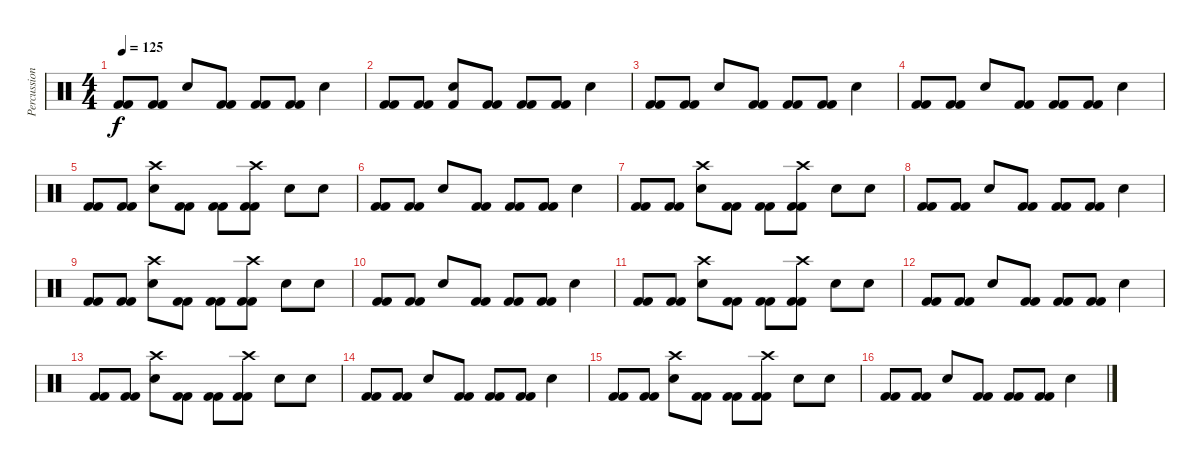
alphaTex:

\track ("Percussioni" "Percussion") {instrument percussion}
\staff {score}
\articulation defaults
\ts (4 4)
\tempo 125
\clef neutral
\ks c
("Kick (hit) 2" "Kick (hit) 2").8{dy f} ("Kick (hit) 2" "Kick (hit) 2").8 "Electric Snare (hit)".8 ("Kick (hit) 2" "Kick (hit) 2").8 ("Kick (hit) 2" "Kick (hit) 2").8 ("Kick (hit) 2" "Kick (hit) 2").8 "Electric Snare (hit)".4 |
("Kick (hit) 2" "Kick (hit) 2").8 ("Kick (hit) 2" "Kick (hit) 2").8 ("Electric Snare (hit)" "Kick (hit) 2").8 ("Kick (hit) 2" "Kick (hit) 2").8 ("Kick (hit) 2" "Kick (hit) 2").8 ("Kick (hit) 2" "Kick (hit) 2").8 "Electric Snare (hit)".4 |
("Kick (hit) 2" "Kick (hit) 2").8 ("Kick (hit) 2" "Kick (hit) 2").8 "Electric Snare (hit)".8 ("Kick (hit) 2" "Kick (hit) 2").8 ("Kick (hit) 2" "Kick (hit) 2").8 ("Kick (hit) 2" "Kick (hit) 2").8 "Electric Snare (hit)".4 |
("Kick (hit) 2" "Kick (hit) 2").8 ("Kick (hit) 2" "Kick (hit) 2").8 "Electric Snare (hit)".8 ("Kick (hit) 2" "Kick (hit) 2").8 ("Kick (hit) 2" "Kick (hit) 2").8 ("Kick (hit) 2" "Kick (hit) 2").8 "Electric Snare (hit)".4 |
("Kick (hit) 2" "Kick (hit) 2").8 ("Kick (hit) 2" "Kick (hit) 2").8 ("Electric Snare (hit)" "Crash high (hit)").8 ("Kick (hit) 2" "Kick (hit) 2").8 ("Kick (hit) 2" "Kick (hit) 2").8 ("Kick (hit) 2" "Kick (hit) 2" "Crash high (hit)").8 "Electric Snare (hit)".8 "Electric Snare (hit)".8 |
("Kick (hit) 2" "Kick (hit) 2").8 ("Kick (hit) 2" "Kick (hit) 2").8 "Electric Snare (hit)".8 ("Kick (hit) 2" "Kick (hit) 2").8 ("Kick (hit) 2" "Kick (hit) 2").8 ("Kick (hit) 2" "Kick (hit) 2").8 "Electric Snare (hit)".4 |
("Kick (hit) 2" "Kick (hit) 2").8 ("Kick (hit) 2" "Kick (hit) 2").8 ("Electric Snare (hit)" "Crash high (hit)").8 ("Kick (hit) 2" "Kick (hit) 2").8 ("Kick (hit) 2" "Kick (hit) 2").8 ("Kick (hit) 2" "Kick (hit) 2" "Crash high (hit)").8 "Electric Snare (hit)".8 "Electric Snare (hit)".8 |
("Kick (hit) 2" "Kick (hit) 2").8 ("Kick (hit) 2" "Kick (hit) 2").8 "Electric Snare (hit)".8 ("Kick (hit) 2" "Kick (hit) 2").8 ("Kick (hit) 2" "Kick (hit) 2").8 ("Kick (hit) 2" "Kick (hit) 2").8 "Electric Snare (hit)".4 |
("Kick (hit) 2" "Kick (hit) 2").8 ("Kick (hit) 2" "Kick (hit) 2").8 ("Electric Snare (hit)" "Crash high (hit)").8 ("Kick (hit) 2" "Kick (hit) 2").8 ("Kick (hit) 2" "Kick (hit) 2").8 ("Kick (hit) 2" "Kick (hit) 2" "Crash high (hit)").8 "Electric Snare (hit)".8 "Electric Snare (hit)".8 |
("Kick (hit) 2" "Kick (hit) 2").8 ("Kick (hit) 2" "Kick (hit) 2").8 "Electric Snare (hit)".8 ("Kick (hit) 2" "Kick (hit) 2").8 ("Kick (hit) 2" "Kick (hit) 2").8 ("Kick (hit) 2" "Kick (hit) 2").8 "Electric Snare (hit)".4 |
("Kick (hit) 2" "Kick (hit) 2").8 ("Kick (hit) 2" "Kick (hit) 2").8 ("Electric Snare (hit)" "Crash high (hit)").8 ("Kick (hit) 2" "Kick (hit) 2").8 ("Kick (hit) 2" "Kick (hit) 2").8 ("Kick (hit) 2" "Kick (hit) 2" "Crash high (hit)").8 "Electric Snare (hit)".8 "Electric Snare (hit)".8 |
("Kick (hit) 2" "Kick (hit) 2").8 ("Kick (hit) 2" "Kick (hit) 2").8 "Electric Snare (hit)".8 ("Kick (hit) 2" "Kick (hit) 2").8 ("Kick (hit) 2" "Kick (hit) 2").8 ("Kick (hit) 2" "Kick (hit) 2").8 "Electric Snare (hit)".4 |
("Kick (hit) 2" "Kick (hit) 2").8 ("Kick (hit) 2" "Kick (hit) 2").8 ("Electric Snare (hit)" "Crash high (hit)").8 ("Kick (hit) 2" "Kick (hit) 2").8 ("Kick (hit) 2" "Kick (hit) 2").8 ("Kick (hit) 2" "Kick (hit) 2" "Crash high (hit)").8 "Electric Snare (hit)".8 "Electric Snare (hit)".8 |
("Kick (hit) 2" "Kick (hit) 2").8 ("Kick (hit) 2" "Kick (hit) 2").8 "Electric Snare (hit)".8 ("Kick (hit) 2" "Kick (hit) 2").8 ("Kick (hit) 2" "Kick (hit) 2").8 ("Kick (hit) 2" "Kick (hit) 2").8 "Electric Snare (hit)".4 |
("Kick (hit) 2" "Kick (hit) 2").8 ("Kick (hit) 2" "Kick (hit) 2").8 ("Electric Snare (hit)" "Crash high (hit)").8 ("Kick (hit) 2" "Kick (hit) 2").8 ("Kick (hit) 2" "Kick (hit) 2").8 ("Kick (hit) 2" "Kick (hit) 2" "Crash high (hit)").8 "Electric Snare (hit)".8 "Electric Snare (hit)".8 |
("Kick (hit) 2" "Kick (hit) 2").8 ("Kick (hit) 2" "Kick (hit) 2").8 "Electric Snare (hit)".8 ("Kick (hit) 2" "Kick (hit) 2").8 ("Kick (hit) 2" "Kick (hit) 2").8 ("Kick (hit) 2" "Kick (hit) 2").8 "Electric Snare (hit)".4
